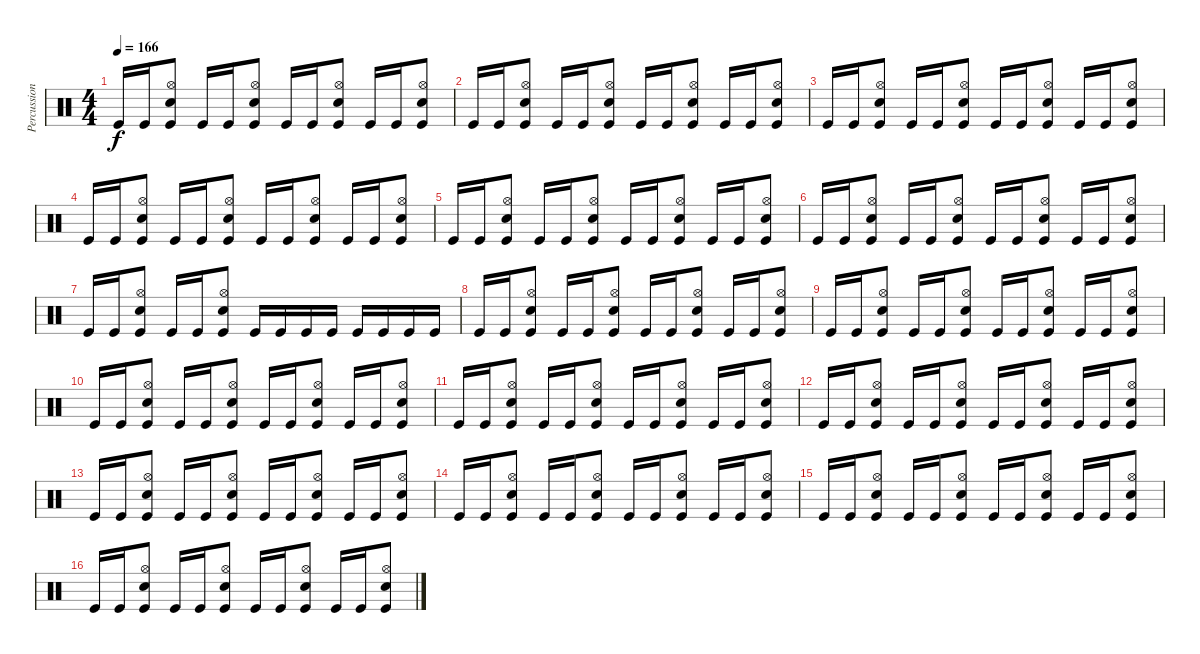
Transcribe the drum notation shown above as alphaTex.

\track ("Percussioni" "Percussion") {instrument percussion}
\staff {score}
\articulation defaults
\ts (4 4)
\tempo 166
\clef neutral
\ks c "Kick (hit)".16{dy f} "Kick (hit)".16
("Hi-Hat (open)" "Snare (hit) 2" "Kick (hit)").8 "Kick (hit)".16 "Kick (hit)".16 ("Hi-Hat (open)" "Snare (hit) 2" "Kick (hit)").8 "Kick (hit)".16 "Kick (hit)".16 ("Hi-Hat (open)" "Snare (hit) 2" "Kick (hit)").8 "Kick (hit)".16 "Kick (hit)".16 ("Hi-Hat (open)" "Snare (hit) 2" "Kick (hit)").8 |
"Kick (hit)".16 "Kick (hit)".16 ("Hi-Hat (open)" "Snare (hit) 2" "Kick (hit)").8 "Kick (hit)".16 "Kick (hit)".16 ("Hi-Hat (open)" "Snare (hit) 2" "Kick (hit)").8 "Kick (hit)".16 "Kick (hit)".16 ("Hi-Hat (open)" "Snare (hit) 2" "Kick (hit)").8 "Kick (hit)".16 "Kick (hit)".16 ("Hi-Hat (open)" "Snare (hit) 2" "Kick (hit)").8 |
"Kick (hit)".16 "Kick (hit)".16 ("Hi-Hat (open)" "Snare (hit) 2" "Kick (hit)").8 "Kick (hit)".16 "Kick (hit)".16 ("Hi-Hat (open)" "Snare (hit) 2" "Kick (hit)").8 "Kick (hit)".16 "Kick (hit)".16 ("Hi-Hat (open)" "Snare (hit) 2" "Kick (hit)").8 "Kick (hit)".16 "Kick (hit)".16 ("Hi-Hat (open)" "Snare (hit) 2" "Kick (hit)").8 |
"Kick (hit)".16 "Kick (hit)".16 ("Hi-Hat (open)" "Snare (hit) 2" "Kick (hit)").8 "Kick (hit)".16 "Kick (hit)".16 ("Hi-Hat (open)" "Snare (hit) 2" "Kick (hit)").8 "Kick (hit)".16 "Kick (hit)".16 ("Hi-Hat (open)" "Snare (hit) 2" "Kick (hit)").8 "Kick (hit)".16 "Kick (hit)".16 ("Hi-Hat (open)" "Snare (hit) 2" "Kick (hit)").8 |
"Kick (hit)".16 "Kick (hit)".16 ("Hi-Hat (open)" "Snare (hit) 2" "Kick (hit)").8 "Kick (hit)".16 "Kick (hit)".16 ("Hi-Hat (open)" "Snare (hit) 2" "Kick (hit)").8 "Kick (hit)".16 "Kick (hit)".16 ("Hi-Hat (open)" "Snare (hit) 2" "Kick (hit)").8 "Kick (hit)".16 "Kick (hit)".16 ("Hi-Hat (open)" "Snare (hit) 2" "Kick (hit)").8 |
"Kick (hit)".16 "Kick (hit)".16 ("Hi-Hat (open)" "Snare (hit) 2" "Kick (hit)").8 "Kick (hit)".16 "Kick (hit)".16 ("Hi-Hat (open)" "Snare (hit) 2" "Kick (hit)").8 "Kick (hit)".16 "Kick (hit)".16 ("Hi-Hat (open)" "Snare (hit) 2" "Kick (hit)").8 "Kick (hit)".16 "Kick (hit)".16 ("Hi-Hat (open)" "Snare (hit) 2" "Kick (hit)").8 |
"Kick (hit)".16 "Kick (hit)".16 ("Hi-Hat (open)" "Snare (hit) 2" "Kick (hit)").8 "Kick (hit)".16 "Kick (hit)".16 ("Hi-Hat (open)" "Snare (hit) 2" "Kick (hit)").8 "Kick (hit)".16 "Kick (hit)".16 "Kick (hit)".16 "Kick (hit)".16 "Kick (hit)".16 "Kick (hit)".16 "Kick (hit)".16 "Kick (hit)".16 |
"Kick (hit)".16 "Kick (hit)".16 ("Hi-Hat (open)" "Snare (hit) 2" "Kick (hit)").8 "Kick (hit)".16 "Kick (hit)".16 ("Hi-Hat (open)" "Snare (hit) 2" "Kick (hit)").8 "Kick (hit)".16 "Kick (hit)".16 ("Hi-Hat (open)" "Snare (hit) 2" "Kick (hit)").8 "Kick (hit)".16 "Kick (hit)".16 ("Hi-Hat (open)" "Snare (hit) 2" "Kick (hit)").8 |
"Kick (hit)".16 "Kick (hit)".16 ("Hi-Hat (open)" "Snare (hit) 2" "Kick (hit)").8 "Kick (hit)".16 "Kick (hit)".16 ("Hi-Hat (open)" "Snare (hit) 2" "Kick (hit)").8 "Kick (hit)".16 "Kick (hit)".16 ("Hi-Hat (open)" "Snare (hit) 2" "Kick (hit)").8 "Kick (hit)".16 "Kick (hit)".16 ("Hi-Hat (open)" "Snare (hit) 2" "Kick (hit)").8 |
"Kick (hit)".16 "Kick (hit)".16 ("Hi-Hat (open)" "Snare (hit) 2" "Kick (hit)").8 "Kick (hit)".16 "Kick (hit)".16 ("Hi-Hat (open)" "Snare (hit) 2" "Kick (hit)").8 "Kick (hit)".16 "Kick (hit)".16 ("Hi-Hat (open)" "Snare (hit) 2" "Kick (hit)").8 "Kick (hit)".16 "Kick (hit)".16 ("Hi-Hat (open)" "Snare (hit) 2" "Kick (hit)").8 |
"Kick (hit)".16 "Kick (hit)".16 ("Hi-Hat (open)" "Snare (hit) 2" "Kick (hit)").8 "Kick (hit)".16 "Kick (hit)".16 ("Hi-Hat (open)" "Snare (hit) 2" "Kick (hit)").8 "Kick (hit)".16 "Kick (hit)".16 ("Hi-Hat (open)" "Snare (hit) 2" "Kick (hit)").8 "Kick (hit)".16 "Kick (hit)".16 ("Hi-Hat (open)" "Snare (hit) 2" "Kick (hit)").8 |
"Kick (hit)".16 "Kick (hit)".16 ("Hi-Hat (open)" "Snare (hit) 2" "Kick (hit)").8 "Kick (hit)".16 "Kick (hit)".16 ("Hi-Hat (open)" "Snare (hit) 2" "Kick (hit)").8 "Kick (hit)".16 "Kick (hit)".16 ("Hi-Hat (open)" "Snare (hit) 2" "Kick (hit)").8 "Kick (hit)".16 "Kick (hit)".16 ("Hi-Hat (open)" "Snare (hit) 2" "Kick (hit)").8 |
"Kick (hit)".16 "Kick (hit)".16 ("Hi-Hat (open)" "Snare (hit) 2" "Kick (hit)").8 "Kick (hit)".16 "Kick (hit)".16 ("Hi-Hat (open)" "Snare (hit) 2" "Kick (hit)").8 "Kick (hit)".16 "Kick (hit)".16 ("Hi-Hat (open)" "Snare (hit) 2" "Kick (hit)").8 "Kick (hit)".16 "Kick (hit)".16 ("Hi-Hat (open)" "Snare (hit) 2" "Kick (hit)").8 |
"Kick (hit)".16 "Kick (hit)".16 ("Hi-Hat (open)" "Snare (hit) 2" "Kick (hit)").8 "Kick (hit)".16 "Kick (hit)".16 ("Hi-Hat (open)" "Snare (hit) 2" "Kick (hit)").8 "Kick (hit)".16 "Kick (hit)".16 ("Hi-Hat (open)" "Snare (hit) 2" "Kick (hit)").8 "Kick (hit)".16 "Kick (hit)".16 ("Hi-Hat (open)" "Snare (hit) 2" "Kick (hit)").8 |
"Kick (hit)".16 "Kick (hit)".16 ("Hi-Hat (open)" "Snare (hit) 2" "Kick (hit)").8 "Kick (hit)".16 "Kick (hit)".16 ("Hi-Hat (open)" "Snare (hit) 2" "Kick (hit)").8 "Kick (hit)".16 "Kick (hit)".16 ("Hi-Hat (open)" "Snare (hit) 2" "Kick (hit)").8 "Kick (hit)".16 "Kick (hit)".16 ("Hi-Hat (open)" "Snare (hit) 2" "Kick (hit)").8 |
"Kick (hit)".16 "Kick (hit)".16 ("Hi-Hat (open)" "Snare (hit) 2" "Kick (hit)").8 "Kick (hit)".16 "Kick (hit)".16 ("Hi-Hat (open)" "Snare (hit) 2" "Kick (hit)").8 "Kick (hit)".16 "Kick (hit)".16 ("Hi-Hat (open)" "Snare (hit) 2" "Kick (hit)").8 "Kick (hit)".16 "Kick (hit)".16 ("Hi-Hat (open)" "Snare (hit) 2" "Kick (hit)").8
